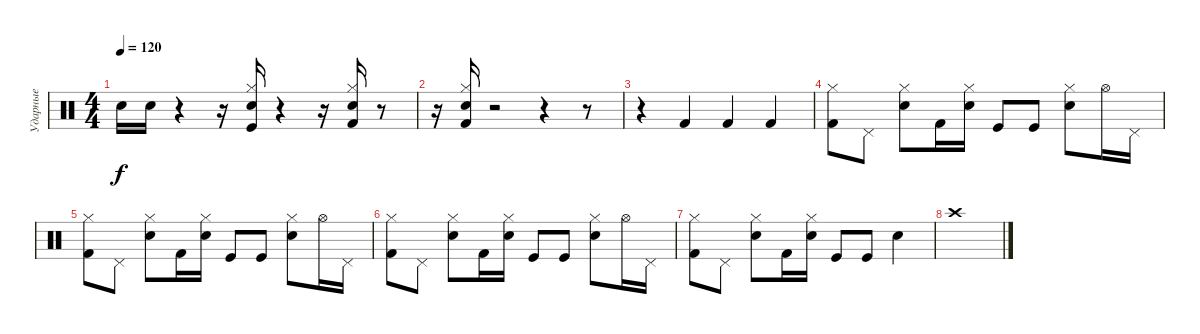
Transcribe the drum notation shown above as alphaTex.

\track ("Ударные" "Ударные") {instrument percussion}
\staff {score}
\articulation defaults
\ts (4 4)
\tempo 120
\clef neutral
\ks c "Electric Snare (hit)".16{dy f volume 13} "Electric Snare (hit)".16
r.4 r.16 ("Hi-Hat (closed)" "Electric Snare (hit)" "Kick (hit)").16 r.4 r.16 ("Hi-Hat (closed)" "Electric Snare (hit)" "Kick (hit) 2").16 r.8 |
r.16 ("Hi-Hat (closed)" "Electric Snare (hit)" "Kick (hit) 2").16 r.2 r.4 r.8 |
r.4 "Kick (hit) 2".4 "Kick (hit) 2".4 "Kick (hit) 2".4 |
("Hi-Hat (closed)" "Kick (hit) 2").8 "Pedal Hi-Hat (hit)".8 ("Hi-Hat (closed)" "Electric Snare (hit)").8 "Kick (hit) 2".16 ("Hi-Hat (closed)" "Electric Snare (hit)").16 "Kick (hit)".8 "Kick (hit)".8 ("Hi-Hat (closed)" "Electric Snare (hit)").8 "Hi-Hat (open)".16 "Pedal Hi-Hat (hit)".16 |
("Hi-Hat (closed)" "Kick (hit) 2").8 "Pedal Hi-Hat (hit)".8 ("Hi-Hat (closed)" "Electric Snare (hit)").8 "Kick (hit) 2".16 ("Hi-Hat (closed)" "Electric Snare (hit)").16 "Kick (hit)".8 "Kick (hit)".8 ("Hi-Hat (closed)" "Electric Snare (hit)").8 "Hi-Hat (open)".16 "Pedal Hi-Hat (hit)".16 |
("Hi-Hat (closed)" "Kick (hit) 2").8 "Pedal Hi-Hat (hit)".8 ("Hi-Hat (closed)" "Electric Snare (hit)").8 "Kick (hit) 2".16 ("Hi-Hat (closed)" "Electric Snare (hit)").16 "Kick (hit)".8 "Kick (hit)".8 ("Hi-Hat (closed)" "Electric Snare (hit)").8 "Hi-Hat (open)".16 "Pedal Hi-Hat (hit)".16 |
("Hi-Hat (closed)" "Kick (hit) 2").8 "Pedal Hi-Hat (hit)".8 ("Hi-Hat (closed)" "Electric Snare (hit)").8 "Kick (hit) 2".16 ("Hi-Hat (closed)" "Electric Snare (hit)").16 "Kick (hit)".8 "Kick (hit)".8 "Electric Snare (hit)".4 |
"Crash high (hit)".1
